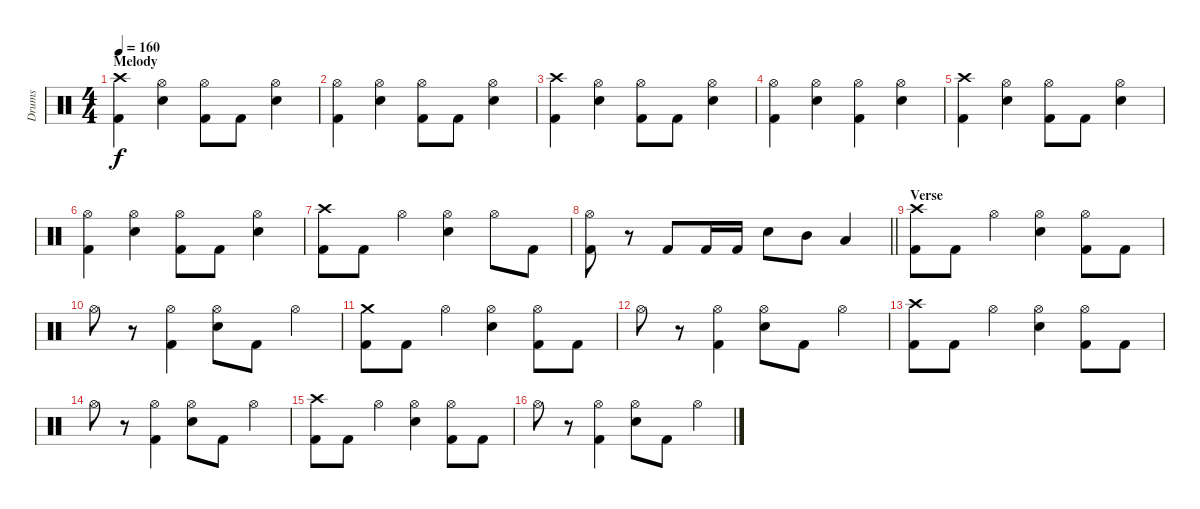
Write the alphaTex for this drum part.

\track ("Drums " "Drums ") {instrument percussion}
\staff {score}
\articulation defaults
\ts (4 4)
\section ("" "Melody")
\tempo 160
\clef neutral
\ks c
("Crash high (hit)" "Kick (hit) 2").4{dy f} ("Hi-Hat (open)" "Snare (hit) 2").4 ("Hi-Hat (open)" "Kick (hit) 2").8 "Kick (hit) 2".8 ("Hi-Hat (open)" "Snare (hit) 2").4 |
("Hi-Hat (open)" "Kick (hit) 2").4 ("Hi-Hat (open)" "Snare (hit) 2").4 ("Hi-Hat (open)" "Kick (hit) 2").8 "Kick (hit) 2".8 ("Hi-Hat (open)" "Snare (hit) 2").4 |
("Crash high (hit)" "Kick (hit) 2").4 ("Hi-Hat (open)" "Snare (hit) 2").4 ("Hi-Hat (open)" "Kick (hit) 2").8 "Kick (hit) 2".8 ("Hi-Hat (open)" "Snare (hit) 2").4 |
("Hi-Hat (open)" "Kick (hit) 2").4 ("Hi-Hat (open)" "Snare (hit) 2").4 ("Hi-Hat (open)" "Kick (hit) 2").4 ("Hi-Hat (open)" "Snare (hit) 2").4 |
("Crash high (hit)" "Kick (hit) 2").4 ("Hi-Hat (open)" "Snare (hit) 2").4 ("Hi-Hat (open)" "Kick (hit) 2").8 "Kick (hit) 2".8 ("Hi-Hat (open)" "Snare (hit) 2").4 |
("Hi-Hat (open)" "Kick (hit) 2").4 ("Hi-Hat (open)" "Snare (hit) 2").4 ("Hi-Hat (open)" "Kick (hit) 2").8 "Kick (hit) 2".8 ("Hi-Hat (open)" "Snare (hit) 2").4 |
("Crash high (hit)" "Kick (hit) 2").8 "Kick (hit) 2".8 "Hi-Hat (open)".4 ("Hi-Hat (open)" "Snare (hit) 2").4 "Hi-Hat (open)".8 "Kick (hit) 2".8 |
\barLineRight lightlight
("Hi-Hat (open)" "Kick (hit) 2").8 r.8 "Kick (hit) 2".8 "Kick (hit) 2".16 "Kick (hit) 2".16 "Snare (hit) 2".8 "Mid Tom (hit)".8 "Low Tom (hit)".4 |
\section ("" "Verse")
("Crash high (hit)" "Kick (hit) 2").8 "Kick (hit) 2".8 "Hi-Hat (open)".4 ("Hi-Hat (open)" "Snare (hit) 2").4 ("Hi-Hat (open)" "Kick (hit) 2").8 "Kick (hit) 2".8 |
"Hi-Hat (open)".8 r.8 ("Hi-Hat (open)" "Kick (hit) 2").4 ("Hi-Hat (open)" "Snare (hit) 2").8 "Kick (hit) 2".8 "Hi-Hat (open)".4 |
("Crash medium (hit)" "Kick (hit) 2").8 "Kick (hit) 2".8 "Hi-Hat (open)".4 ("Hi-Hat (open)" "Snare (hit) 2").4 ("Hi-Hat (open)" "Kick (hit) 2").8 "Kick (hit) 2".8 |
"Hi-Hat (open)".8 r.8 ("Hi-Hat (open)" "Kick (hit) 2").4 ("Hi-Hat (open)" "Snare (hit) 2").8 "Kick (hit) 2".8 "Hi-Hat (open)".4 |
("Crash high (hit)" "Kick (hit) 2").8 "Kick (hit) 2".8 "Hi-Hat (open)".4 ("Hi-Hat (open)" "Snare (hit) 2").4 ("Hi-Hat (open)" "Kick (hit) 2").8 "Kick (hit) 2".8 |
"Hi-Hat (open)".8 r.8 ("Hi-Hat (open)" "Kick (hit) 2").4 ("Hi-Hat (open)" "Snare (hit) 2").8 "Kick (hit) 2".8 "Hi-Hat (open)".4 |
("Crash high (hit)" "Kick (hit) 2").8 "Kick (hit) 2".8 "Hi-Hat (open)".4 ("Hi-Hat (open)" "Snare (hit) 2").4 ("Hi-Hat (open)" "Kick (hit) 2").8 "Kick (hit) 2".8 |
"Hi-Hat (open)".8 r.8 ("Hi-Hat (open)" "Kick (hit) 2").4 ("Hi-Hat (open)" "Snare (hit) 2").8 "Kick (hit) 2".8 "Hi-Hat (open)".4
